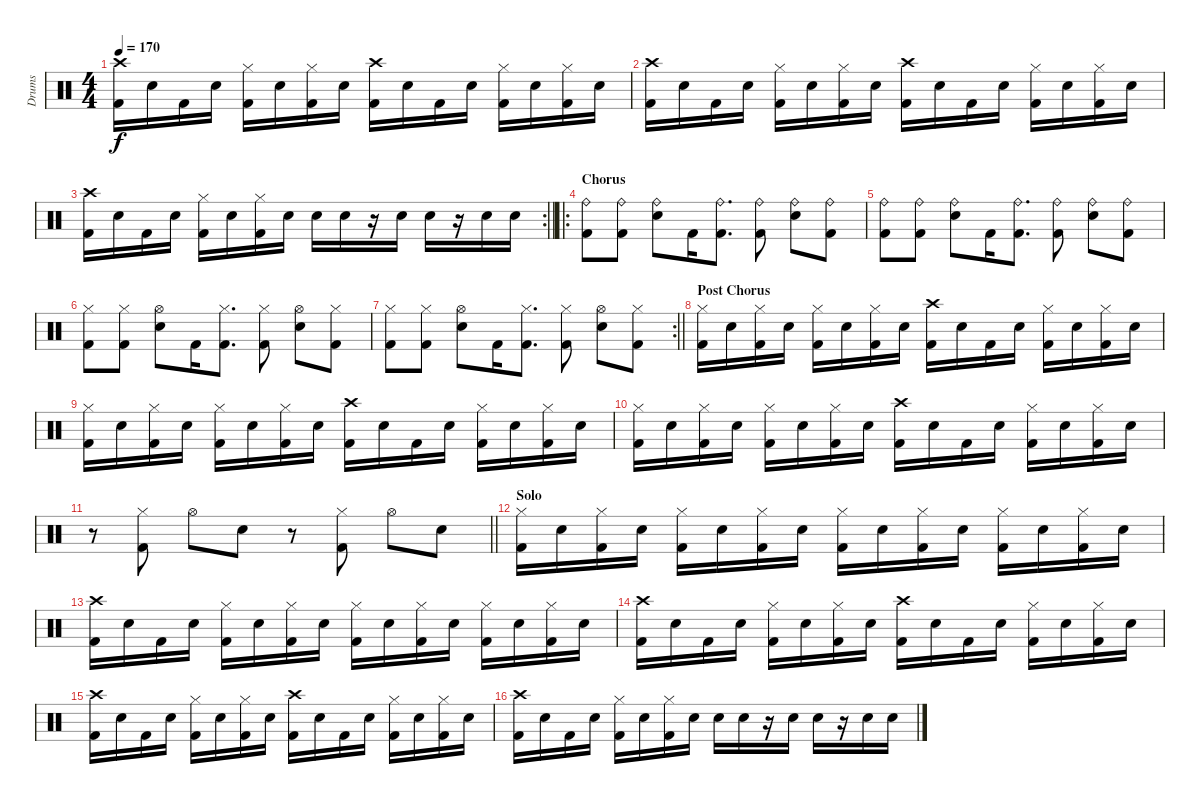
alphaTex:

\track ("Drums" "Drums") {instrument percussion}
\staff {score}
\articulation defaults
\ts (4 4)
\tempo 170
\clef neutral
\ks c
("Crash high (hit)" "Kick (hit) 2").16{dy f} "Electric Snare (hit)".16 "Kick (hit) 2".16 "Electric Snare (hit)".16 ("Hi-Hat (closed)" "Kick (hit) 2").16 "Electric Snare (hit)".16 ("Hi-Hat (closed)" "Kick (hit) 2").16 "Electric Snare (hit)".16 ("Crash high (hit)" "Kick (hit) 2").16 "Electric Snare (hit)".16 "Kick (hit) 2".16 "Electric Snare (hit)".16 ("Hi-Hat (closed)" "Kick (hit) 2").16 "Electric Snare (hit)".16 ("Hi-Hat (closed)" "Kick (hit) 2").16 "Electric Snare (hit)".16 |
("Crash high (hit)" "Kick (hit) 2").16 "Electric Snare (hit)".16 "Kick (hit) 2".16 "Electric Snare (hit)".16 ("Hi-Hat (closed)" "Kick (hit) 2").16 "Electric Snare (hit)".16 ("Hi-Hat (closed)" "Kick (hit) 2").16 "Electric Snare (hit)".16 ("Crash high (hit)" "Kick (hit) 2").16 "Electric Snare (hit)".16 "Kick (hit) 2".16 "Electric Snare (hit)".16 ("Hi-Hat (closed)" "Kick (hit) 2").16 "Electric Snare (hit)".16 ("Hi-Hat (closed)" "Kick (hit) 2").16 "Electric Snare (hit)".16 |
\rc 2
\barLineRight lightlight
("Crash high (hit)" "Kick (hit) 2").16 "Electric Snare (hit)".16 "Kick (hit) 2".16 "Electric Snare (hit)".16 ("Hi-Hat (closed)" "Kick (hit) 2").16 "Electric Snare (hit)".16 ("Hi-Hat (closed)" "Kick (hit) 2").16 "Electric Snare (hit)".16 "Electric Snare (hit)".16 "Electric Snare (hit)".16 r.16 "Electric Snare (hit)".16 "Electric Snare (hit)".16 r.16 "Electric Snare (hit)".16 "Electric Snare (hit)".16 |
\ro
\section ("" "Chorus")
("Ride (bell)" "Kick (hit) 2").8 ("Ride (bell)" "Kick (hit) 2").8 ("Ride (bell)" "Electric Snare (hit)").8 "Kick (hit) 2".16 ("Ride (bell)" "Kick (hit) 2").8{d} ("Ride (bell)" "Kick (hit) 2").8 ("Ride (bell)" "Electric Snare (hit)").8 ("Ride (bell)" "Kick (hit) 2").8 |
("Ride (bell)" "Kick (hit) 2").8 ("Ride (bell)" "Kick (hit) 2").8 ("Ride (bell)" "Electric Snare (hit)").8 "Kick (hit) 2".16 ("Ride (bell)" "Kick (hit) 2").8{d} ("Ride (bell)" "Kick (hit) 2").8 ("Ride (bell)" "Electric Snare (hit)").8 ("Ride (bell)" "Kick (hit) 2").8 |
("Hi-Hat (closed)" "Kick (hit) 2").8 ("Hi-Hat (closed)" "Kick (hit) 2").8 ("Hi-Hat (open)" "Electric Snare (hit)").8 "Kick (hit) 2".16 ("Hi-Hat (closed)" "Kick (hit) 2").8{d} ("Hi-Hat (closed)" "Kick (hit) 2").8 ("Hi-Hat (open)" "Electric Snare (hit)").8 ("Hi-Hat (closed)" "Kick (hit) 2").8 |
\rc 2
\barLineRight lightlight
("Hi-Hat (closed)" "Kick (hit) 2").8 ("Hi-Hat (closed)" "Kick (hit) 2").8 ("Hi-Hat (open)" "Electric Snare (hit)").8 "Kick (hit) 2".16 ("Hi-Hat (closed)" "Kick (hit) 2").8{d} ("Hi-Hat (closed)" "Kick (hit) 2").8 ("Hi-Hat (open)" "Electric Snare (hit)").8 ("Hi-Hat (closed)" "Kick (hit) 2").8 |
\section ("" "Post Chorus ")
("Hi-Hat (closed)" "Kick (hit) 2").16 "Electric Snare (hit)".16 ("Hi-Hat (closed)" "Kick (hit) 2").16 "Electric Snare (hit)".16 ("Hi-Hat (closed)" "Kick (hit) 2").16 "Electric Snare (hit)".16 ("Hi-Hat (closed)" "Kick (hit) 2").16 "Electric Snare (hit)".16 ("Crash high (hit)" "Kick (hit) 2").16 "Electric Snare (hit)".16 "Kick (hit) 2".16 "Electric Snare (hit)".16 ("Hi-Hat (closed)" "Kick (hit) 2").16 "Electric Snare (hit)".16 ("Hi-Hat (closed)" "Kick (hit) 2").16 "Electric Snare (hit)".16 |
("Hi-Hat (closed)" "Kick (hit) 2").16 "Electric Snare (hit)".16 ("Hi-Hat (closed)" "Kick (hit) 2").16 "Electric Snare (hit)".16 ("Hi-Hat (closed)" "Kick (hit) 2").16 "Electric Snare (hit)".16 ("Hi-Hat (closed)" "Kick (hit) 2").16 "Electric Snare (hit)".16 ("Crash high (hit)" "Kick (hit) 2").16 "Electric Snare (hit)".16 "Kick (hit) 2".16 "Electric Snare (hit)".16 ("Hi-Hat (closed)" "Kick (hit) 2").16 "Electric Snare (hit)".16 ("Hi-Hat (closed)" "Kick (hit) 2").16 "Electric Snare (hit)".16 |
("Hi-Hat (closed)" "Kick (hit) 2").16 "Electric Snare (hit)".16 ("Hi-Hat (closed)" "Kick (hit) 2").16 "Electric Snare (hit)".16 ("Hi-Hat (closed)" "Kick (hit) 2").16 "Electric Snare (hit)".16 ("Hi-Hat (closed)" "Kick (hit) 2").16 "Electric Snare (hit)".16 ("Crash high (hit)" "Kick (hit) 2").16 "Electric Snare (hit)".16 "Kick (hit) 2".16 "Electric Snare (hit)".16 ("Hi-Hat (closed)" "Kick (hit) 2").16 "Electric Snare (hit)".16 ("Hi-Hat (closed)" "Kick (hit) 2").16 "Electric Snare (hit)".16 |
\barLineRight lightlight
r.8 ("Hi-Hat (closed)" "Kick (hit) 2").8 "Hi-Hat (open)".8 "Electric Snare (hit)".8 r.8 ("Hi-Hat (closed)" "Kick (hit) 2").8 "Hi-Hat (open)".8 "Electric Snare (hit)".8 |
\section ("" "Solo")
("Hi-Hat (closed)" "Kick (hit) 2").16 "Electric Snare (hit)".16 ("Hi-Hat (closed)" "Kick (hit) 2").16 "Electric Snare (hit)".16 ("Hi-Hat (closed)" "Kick (hit) 2").16 "Electric Snare (hit)".16 ("Hi-Hat (closed)" "Kick (hit) 2").16 "Electric Snare (hit)".16 ("Hi-Hat (closed)" "Kick (hit) 2").16 "Electric Snare (hit)".16 ("Hi-Hat (closed)" "Kick (hit) 2").16 "Electric Snare (hit)".16 ("Hi-Hat (closed)" "Kick (hit) 2").16 "Electric Snare (hit)".16 ("Hi-Hat (closed)" "Kick (hit) 2").16 "Electric Snare (hit)".16 |
("Crash high (hit)" "Kick (hit) 2").16 "Electric Snare (hit)".16 "Kick (hit) 2".16 "Electric Snare (hit)".16 ("Hi-Hat (closed)" "Kick (hit) 2").16 "Electric Snare (hit)".16 ("Hi-Hat (closed)" "Kick (hit) 2").16 "Electric Snare (hit)".16 ("Hi-Hat (closed)" "Kick (hit) 2").16 "Electric Snare (hit)".16 ("Hi-Hat (closed)" "Kick (hit) 2").16 "Electric Snare (hit)".16 ("Hi-Hat (closed)" "Kick (hit) 2").16 "Electric Snare (hit)".16 ("Hi-Hat (closed)" "Kick (hit) 2").16 "Electric Snare (hit)".16 |
("Crash high (hit)" "Kick (hit) 2").16 "Electric Snare (hit)".16 "Kick (hit) 2".16 "Electric Snare (hit)".16 ("Hi-Hat (closed)" "Kick (hit) 2").16 "Electric Snare (hit)".16 ("Hi-Hat (closed)" "Kick (hit) 2").16 "Electric Snare (hit)".16 ("Crash high (hit)" "Kick (hit) 2").16 "Electric Snare (hit)".16 "Kick (hit) 2".16 "Electric Snare (hit)".16 ("Hi-Hat (closed)" "Kick (hit) 2").16 "Electric Snare (hit)".16 ("Hi-Hat (closed)" "Kick (hit) 2").16 "Electric Snare (hit)".16 |
("Crash high (hit)" "Kick (hit) 2").16 "Electric Snare (hit)".16 "Kick (hit) 2".16 "Electric Snare (hit)".16 ("Hi-Hat (closed)" "Kick (hit) 2").16 "Electric Snare (hit)".16 ("Hi-Hat (closed)" "Kick (hit) 2").16 "Electric Snare (hit)".16 ("Crash high (hit)" "Kick (hit) 2").16 "Electric Snare (hit)".16 "Kick (hit) 2".16 "Electric Snare (hit)".16 ("Hi-Hat (closed)" "Kick (hit) 2").16 "Electric Snare (hit)".16 ("Hi-Hat (closed)" "Kick (hit) 2").16 "Electric Snare (hit)".16 |
("Crash high (hit)" "Kick (hit) 2").16 "Electric Snare (hit)".16 "Kick (hit) 2".16 "Electric Snare (hit)".16 ("Hi-Hat (closed)" "Kick (hit) 2").16 "Electric Snare (hit)".16 ("Hi-Hat (closed)" "Kick (hit) 2").16 "Electric Snare (hit)".16 "Electric Snare (hit)".16 "Electric Snare (hit)".16 r.16 "Electric Snare (hit)".16 "Electric Snare (hit)".16 r.16 "Electric Snare (hit)".16 "Electric Snare (hit)".16
